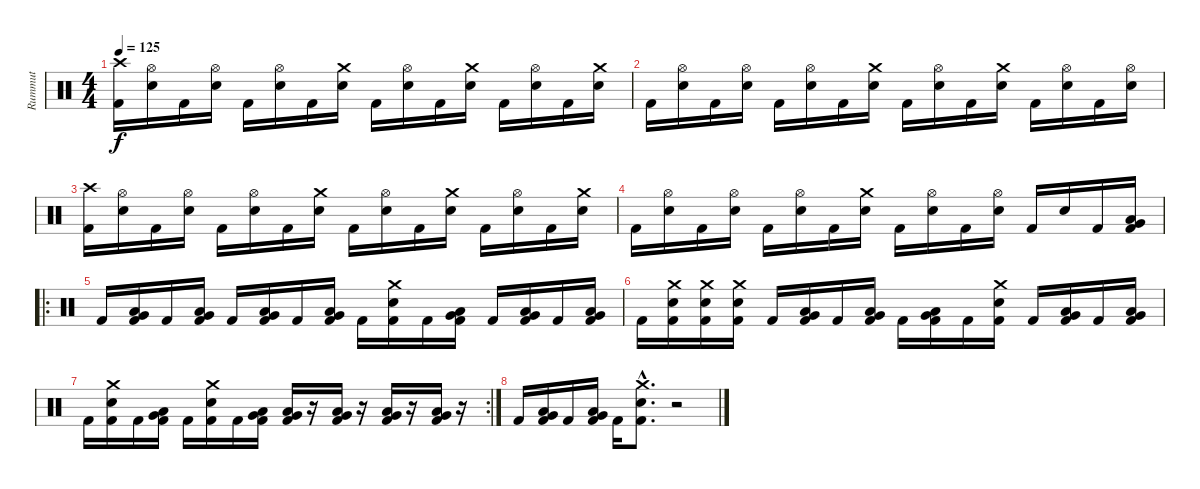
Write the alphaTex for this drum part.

\track ("Rummut" "Rummut") {instrument percussion}
\staff {score}
\articulation defaults
\ts (4 4)
\tempo 125
\clef neutral
\ks c
("Crash high (hit)" "Kick (hit) 2").16{dy f} ("Hi-Hat (open)" "Electric Snare (hit)").16 "Kick (hit) 2".16 ("Hi-Hat (open)" "Electric Snare (hit)").16 "Kick (hit) 2".16 ("Hi-Hat (open)" "Electric Snare (hit)").16 "Kick (hit) 2".16 ("Crash medium (hit)" "Electric Snare (hit)").16 "Kick (hit) 2".16 ("Hi-Hat (open)" "Electric Snare (hit)").16 "Kick (hit) 2".16 ("Crash medium (hit)" "Electric Snare (hit)").16 "Kick (hit) 2".16 ("Hi-Hat (open)" "Electric Snare (hit)").16 "Kick (hit) 2".16 ("Crash medium (hit)" "Electric Snare (hit)").16 |
"Kick (hit) 2".16 ("Hi-Hat (open)" "Electric Snare (hit)").16 "Kick (hit) 2".16 ("Hi-Hat (open)" "Electric Snare (hit)").16 "Kick (hit) 2".16 ("Hi-Hat (open)" "Electric Snare (hit)").16 "Kick (hit) 2".16 ("Crash medium (hit)" "Electric Snare (hit)").16 "Kick (hit) 2".16 ("Hi-Hat (open)" "Electric Snare (hit)").16 "Kick (hit) 2".16 ("Crash medium (hit)" "Electric Snare (hit)").16 "Kick (hit) 2".16 ("Hi-Hat (open)" "Electric Snare (hit)").16 "Kick (hit) 2".16 ("Hi-Hat (open)" "Electric Snare (hit)").16 |
("Crash high (hit)" "Kick (hit) 2").16 ("Hi-Hat (open)" "Electric Snare (hit)").16 "Kick (hit) 2".16 ("Hi-Hat (open)" "Electric Snare (hit)").16 "Kick (hit) 2".16 ("Hi-Hat (open)" "Electric Snare (hit)").16 "Kick (hit) 2".16 ("Crash medium (hit)" "Electric Snare (hit)").16 "Kick (hit) 2".16 ("Hi-Hat (open)" "Electric Snare (hit)").16 "Kick (hit) 2".16 ("Crash medium (hit)" "Electric Snare (hit)").16 "Kick (hit) 2".16 ("Hi-Hat (open)" "Electric Snare (hit)").16 "Kick (hit) 2".16 ("Crash medium (hit)" "Electric Snare (hit)").16 |
"Kick (hit) 2".16 ("Hi-Hat (open)" "Electric Snare (hit)").16 "Kick (hit) 2".16 ("Hi-Hat (open)" "Electric Snare (hit)").16 "Kick (hit) 2".16 ("Hi-Hat (open)" "Electric Snare (hit)").16 "Kick (hit) 2".16 ("Crash medium (hit)" "Electric Snare (hit)").16 "Kick (hit) 2".16 ("Hi-Hat (open)" "Electric Snare (hit)").16 "Kick (hit) 2".16 ("Hi-Hat (open)" "Electric Snare (hit)").16 "Kick (hit) 2".16 "Electric Snare (hit)".16 "Kick (hit) 2".16 ("Very Low Tom (hit)" "Low Floor Tom (hit)" "Kick (hit) 2").16 |
\ro "Kick (hit) 2".16
("Very Low Tom (hit)" "Low Floor Tom (hit)" "Kick (hit) 2").16 "Kick (hit) 2".16 ("Very Low Tom (hit)" "Low Floor Tom (hit)" "Kick (hit) 2").16 "Kick (hit) 2".16 ("Very Low Tom (hit)" "Low Floor Tom (hit)" "Kick (hit) 2").16 "Kick (hit) 2".16 ("Very Low Tom (hit)" "Low Floor Tom (hit)" "Kick (hit) 2").16 "Kick (hit) 2".16 ("Crash medium (hit)" "Electric Snare (hit)" "Kick (hit) 2").16 "Kick (hit) 2".16 ("Very Low Tom (hit)" "Low Floor Tom (hit)" "Kick (hit) 2").16 "Kick (hit) 2".16 ("Very Low Tom (hit)" "Low Floor Tom (hit)" "Kick (hit) 2").16 "Kick (hit) 2".16 ("Very Low Tom (hit)" "Low Floor Tom (hit)" "Kick (hit) 2").16 |
"Kick (hit) 2".16 ("Crash medium (hit)" "Electric Snare (hit)" "Kick (hit) 2").16 ("Crash medium (hit)" "Electric Snare (hit)" "Kick (hit) 2").16 ("Crash medium (hit)" "Electric Snare (hit)" "Kick (hit) 2").16 "Kick (hit) 2".16 ("Very Low Tom (hit)" "Low Floor Tom (hit)" "Kick (hit) 2").16 "Kick (hit) 2".16 ("Very Low Tom (hit)" "Low Floor Tom (hit)" "Kick (hit) 2").16 "Kick (hit) 2".16 ("Very Low Tom (hit)" "Low Floor Tom (hit)" "Kick (hit) 2").16 "Kick (hit) 2".16 ("Crash medium (hit)" "Electric Snare (hit)" "Kick (hit) 2").16 "Kick (hit) 2".16 ("Very Low Tom (hit)" "Low Floor Tom (hit)" "Kick (hit) 2").16 "Kick (hit) 2".16 ("Very Low Tom (hit)" "Low Floor Tom (hit)" "Kick (hit) 2").16 |
\rc 2 "Kick (hit) 2".16
("Crash medium (hit)" "Electric Snare (hit)" "Kick (hit) 2").16 "Kick (hit) 2".16 ("Very Low Tom (hit)" "Low Floor Tom (hit)" "Kick (hit) 2").16 "Kick (hit) 2".16 ("Crash medium (hit)" "Electric Snare (hit)" "Kick (hit) 2").16 "Kick (hit) 2".16 ("Very Low Tom (hit)" "Low Floor Tom (hit)" "Kick (hit) 2").16 ("Very Low Tom (hit)" "Low Floor Tom (hit)" "Kick (hit) 2").16 r.16 ("Very Low Tom (hit)" "Low Floor Tom (hit)" "Kick (hit) 2").16 r.16 ("Very Low Tom (hit)" "Low Floor Tom (hit)" "Kick (hit) 2").16 r.16 ("Very Low Tom (hit)" "Low Floor Tom (hit)" "Kick (hit) 2").16 r.16 |
"Kick (hit) 2".16 ("Very Low Tom (hit)" "Low Floor Tom (hit)" "Kick (hit) 2").16 "Kick (hit) 2".16 ("Very Low Tom (hit)" "Low Floor Tom (hit)" "Kick (hit) 2").16 "Kick (hit) 2".16 ("Crash medium (hit)"{hac} "Electric Snare (hit)"{hac} "Kick (hit) 2"{hac}).8{d} r.2
